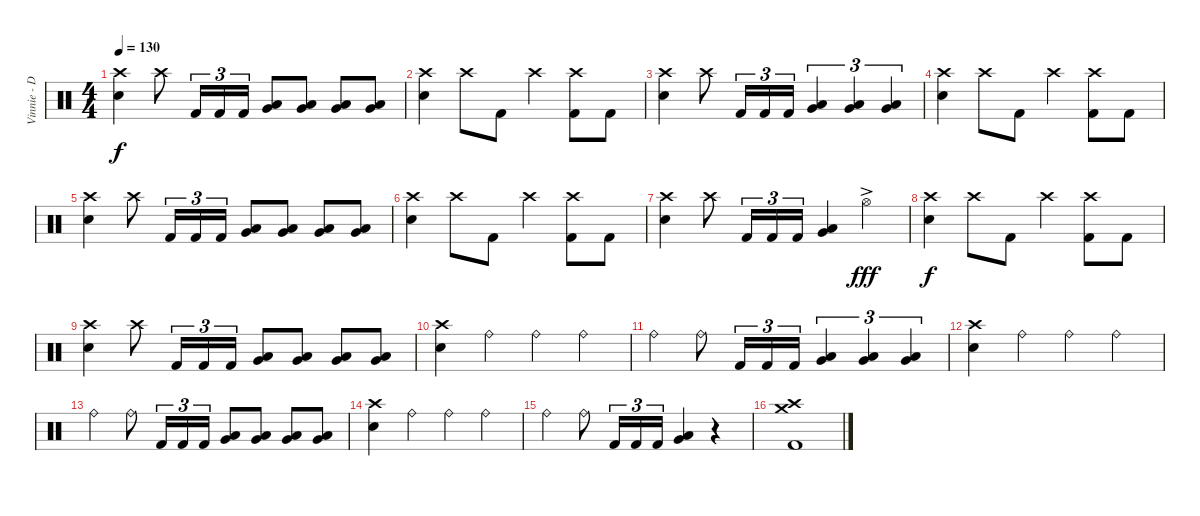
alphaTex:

\track ("Vinnie - Drums" "Vinnie - D") {instrument percussion}
\staff {score}
\articulation defaults
\ts (4 4)
\tempo 130
\clef neutral
\ks c
("Crash high (hit)" "Snare (hit) 2").4{dy f} "Crash high (hit)".8 "Kick (hit) 2".16{tu (3 2)} "Kick (hit) 2".16{tu (3 2)} "Kick (hit) 2".16{tu (3 2)} ("Low Tom (hit)" "Very Low Tom (hit)").8 ("Low Tom (hit)" "Very Low Tom (hit)").8 ("Low Tom (hit)" "Very Low Tom (hit)").8 ("Low Tom (hit)" "Very Low Tom (hit)").8 |
("Crash high (hit)" "Snare (hit) 2").4 "Crash high (hit)".8 "Kick (hit) 2".8 "Crash high (hit)".4 ("Crash high (hit)" "Kick (hit) 2").8 "Kick (hit) 2".8 |
("Crash high (hit)" "Snare (hit) 2").4 "Crash high (hit)".8 "Kick (hit) 2".16{tu (3 2)} "Kick (hit) 2".16{tu (3 2)} "Kick (hit) 2".16{tu (3 2)} ("Low Tom (hit)" "Very Low Tom (hit)").4{tu (3 2)} ("Low Tom (hit)" "Very Low Tom (hit)").4{tu (3 2)} ("Low Tom (hit)" "Very Low Tom (hit)").4{tu (3 2)} |
("Crash high (hit)" "Snare (hit) 2").4 "Crash high (hit)".8 "Kick (hit) 2".8 "Crash high (hit)".4 ("Crash high (hit)" "Kick (hit) 2").8 "Kick (hit) 2".8 |
("Crash high (hit)" "Snare (hit) 2").4 "Crash high (hit)".8 "Kick (hit) 2".16{tu (3 2)} "Kick (hit) 2".16{tu (3 2)} "Kick (hit) 2".16{tu (3 2)} ("Low Tom (hit)" "Very Low Tom (hit)").8 ("Low Tom (hit)" "Very Low Tom (hit)").8 ("Low Tom (hit)" "Very Low Tom (hit)").8 ("Low Tom (hit)" "Very Low Tom (hit)").8 |
("Crash high (hit)" "Snare (hit) 2").4 "Crash high (hit)".8 "Kick (hit) 2".8 "Crash high (hit)".4 ("Crash high (hit)" "Kick (hit) 2").8 "Kick (hit) 2".8 |
("Crash high (hit)" "Snare (hit) 2").4 "Crash high (hit)".8 "Kick (hit) 2".16{tu (3 2)} "Kick (hit) 2".16{tu (3 2)} "Kick (hit) 2".16{tu (3 2)} ("Low Tom (hit)" "Very Low Tom (hit)").4 "Hi-Hat (open)"{ac}.4{dy fff} |
("Crash high (hit)" "Snare (hit) 2").4{dy f} "Crash high (hit)".8 "Kick (hit) 2".8 "Crash high (hit)".4 ("Crash high (hit)" "Kick (hit) 2").8 "Kick (hit) 2".8 |
("Crash high (hit)" "Snare (hit) 2").4 "Crash high (hit)".8 "Kick (hit) 2".16{tu (3 2)} "Kick (hit) 2".16{tu (3 2)} "Kick (hit) 2".16{tu (3 2)} ("Low Tom (hit)" "Very Low Tom (hit)").8 ("Low Tom (hit)" "Very Low Tom (hit)").8 ("Low Tom (hit)" "Very Low Tom (hit)").8 ("Low Tom (hit)" "Very Low Tom (hit)").8 |
("Crash high (hit)" "Snare (hit) 2").4 "Ride (bell)".4 "Ride (bell)".4 "Ride (bell)".4 |
"Ride (bell)".4 "Ride (bell)".8 "Kick (hit) 2".16{tu (3 2)} "Kick (hit) 2".16{tu (3 2)} "Kick (hit) 2".16{tu (3 2)} ("Low Tom (hit)" "Very Low Tom (hit)").4{tu (3 2)} ("Low Tom (hit)" "Very Low Tom (hit)").4{tu (3 2)} ("Low Tom (hit)" "Very Low Tom (hit)").4{tu (3 2)} |
("Crash high (hit)" "Snare (hit) 2").4 "Ride (bell)".4 "Ride (bell)".4 "Ride (bell)".4 |
"Ride (bell)".4 "Ride (bell)".8 "Kick (hit) 2".16{tu (3 2)} "Kick (hit) 2".16{tu (3 2)} "Kick (hit) 2".16{tu (3 2)} ("Low Tom (hit)" "Very Low Tom (hit)").8 ("Low Tom (hit)" "Very Low Tom (hit)").8 ("Low Tom (hit)" "Very Low Tom (hit)").8 ("Low Tom (hit)" "Very Low Tom (hit)").8 |
("Crash high (hit)" "Snare (hit) 2").4 "Ride (bell)".4 "Ride (bell)".4 "Ride (bell)".4 |
"Ride (bell)".4 "Ride (bell)".8 "Kick (hit) 2".16{tu (3 2)} "Kick (hit) 2".16{tu (3 2)} "Kick (hit) 2".16{tu (3 2)} ("Low Tom (hit)" "Very Low Tom (hit)").4 r.4 |
("Crash high (hit)" "Crash medium (hit)" "Kick (hit) 2").1
